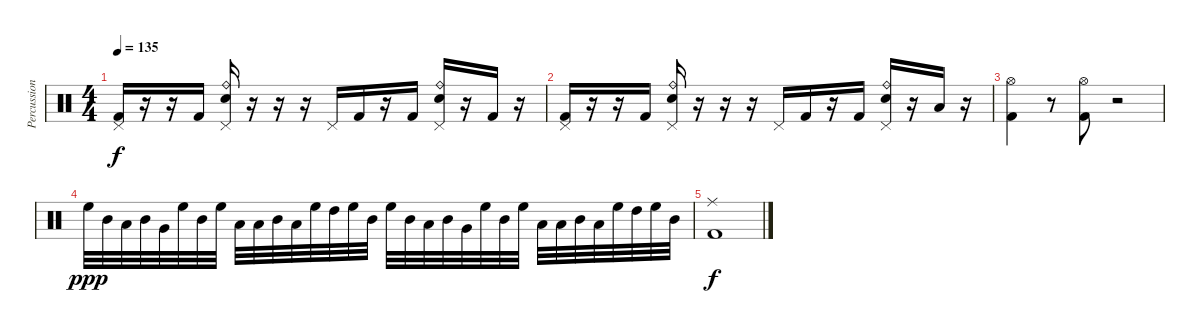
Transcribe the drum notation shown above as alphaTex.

\track ("Percussion" "Percussion") {instrument percussion}
\staff {score}
\articulation defaults
\ts (4 4)
\tempo 135
\clef neutral
\ks c
("Pedal Hi-Hat (hit)" "Kick (hit) 2").16{dy f} r.16 r.16 "Kick (hit) 2".16 ("Ride (bell)" "Electric Snare (hit)" "Pedal Hi-Hat (hit)").16 r.16 r.16 r.16 "Pedal Hi-Hat (hit)".16 "Kick (hit) 2".16 r.16 "Kick (hit) 2".16 ("Ride (bell)" "Electric Snare (hit)" "Pedal Hi-Hat (hit)").16 r.16 "Kick (hit) 2".16 r.16 |
("Pedal Hi-Hat (hit)" "Kick (hit) 2").16 r.16 r.16 "Kick (hit) 2".16 ("Ride (bell)" "Electric Snare (hit)" "Pedal Hi-Hat (hit)").16 r.16 r.16 r.16 "Pedal Hi-Hat (hit)".16 "Kick (hit) 2".16 r.16 "Kick (hit) 2".16 ("Ride (bell)" "Electric Snare (hit)" "Pedal Hi-Hat (hit)").16 r.16 "Low Tom (hit)".16 r.16 |
("Hi-Hat (open)" "Kick (hit) 2").4 r.8 ("Hi-Hat (open)" "Kick (hit) 2").8 r.2 |
"High Floor Tom (hit)".32{dy ppp} "Mid Tom (hit)".32 "Low Floor Tom (hit)".32 "Mid Tom (hit)".32 "Very Low Tom (hit)".32 "High Floor Tom (hit)".32 "Mid Tom (hit)".32 "High Floor Tom (hit)".32 "Low Tom (hit)".32 "Low Tom (hit)".32 "Mid Tom (hit)".32 "Low Floor Tom (hit)".32 "High Floor Tom (hit)".32 "High Tom (hit)".32 "High Floor Tom (hit)".32 "Mid Tom (hit)".32 "High Floor Tom (hit)".32 "Mid Tom (hit)".32 "Low Floor Tom (hit)".32 "Mid Tom (hit)".32 "Very Low Tom (hit)".32 "High Floor Tom (hit)".32 "Mid Tom (hit)".32 "High Floor Tom (hit)".32 "Low Tom (hit)".32 "Low Tom (hit)".32 "Mid Tom (hit)".32 "Low Floor Tom (hit)".32 "High Floor Tom (hit)".32 "High Tom (hit)".32 "High Floor Tom (hit)".32 "Mid Tom (hit)".32 |
("Ride (middle)" "Kick (hit) 2").1{dy f}
